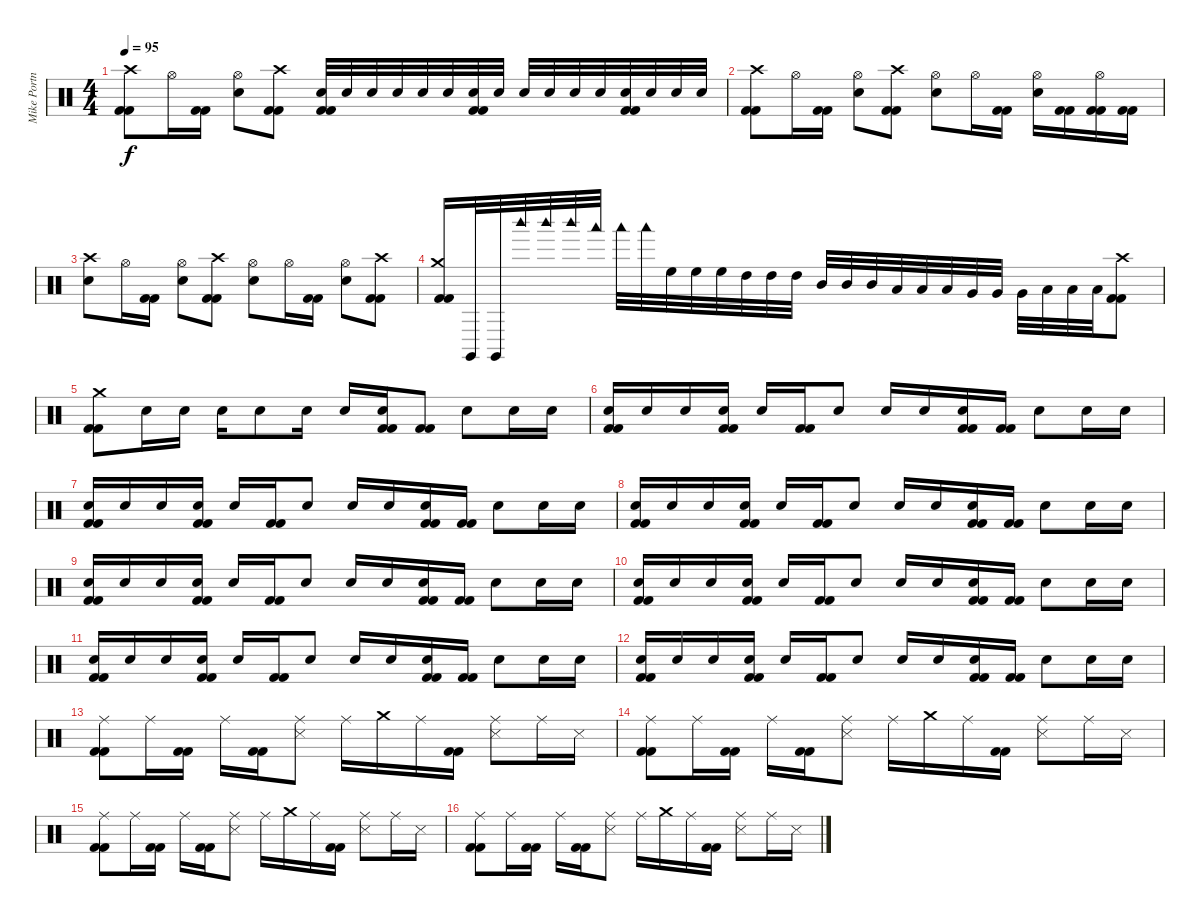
\track ("Mike Portnoy" "Mike Portn") {instrument percussion}
\staff {score}
\articulation defaults
\ts (4 4)
\tempo 95
\clef neutral
\ks c
("Crash high (hit)" "Kick (hit) 2" "Kick (hit) 2").8{dy f} "Hi-Hat (open)".16 ("Kick (hit) 2" "Kick (hit) 2").16 ("Hi-Hat (open)" "Snare (hit) 2").8 ("Crash high (hit)" "Kick (hit) 2" "Kick (hit) 2").8 ("Snare (hit) 2" "Kick (hit) 2" "Kick (hit) 2").32 "Snare (hit) 2".32 "Snare (hit) 2".32 "Snare (hit) 2".32 "Snare (hit) 2".32 "Snare (hit) 2".32 ("Snare (hit) 2" "Kick (hit) 2" "Kick (hit) 2").32 "Snare (hit) 2".32 "Snare (hit) 2".32 "Snare (hit) 2".32 "Snare (hit) 2".32 "Snare (hit) 2".32 ("Snare (hit) 2" "Kick (hit) 2" "Kick (hit) 2").32 "Snare (hit) 2".32 "Snare (hit) 2".32 "Snare (hit) 2".32 |
("Crash high (hit)" "Kick (hit) 2" "Kick (hit) 2").8 "Hi-Hat (open)".16 ("Kick (hit) 2" "Kick (hit) 2").16 ("Hi-Hat (open)" "Snare (hit) 2").8 ("Crash high (hit)" "Kick (hit) 2" "Kick (hit) 2").8 ("Hi-Hat (open)" "Snare (hit) 2").8 "Hi-Hat (open)".16 ("Kick (hit) 2" "Kick (hit) 2").16 ("Hi-Hat (open)" "Snare (hit) 2").16 ("Kick (hit) 2" "Kick (hit) 2").16 ("Hi-Hat (open)" "Kick (hit) 2" "Kick (hit) 2").16 ("Kick (hit) 2" "Kick (hit) 2").16 |
("Crash high (hit)" "Snare (hit) 2").8 "Hi-Hat (open)".16 ("Kick (hit) 2" "Kick (hit) 2").16 ("Hi-Hat (open)" "Snare (hit) 2").8 ("Crash high (hit)" "Kick (hit) 2" "Kick (hit) 2").8 ("Hi-Hat (open)" "Snare (hit) 2").8 "Hi-Hat (open)".16 ("Kick (hit) 2" "Kick (hit) 2").16 ("Hi-Hat (open)" "Snare (hit) 2").8 ("Crash high (hit)" "Kick (hit) 2" "Kick (hit) 2").8 |
("Crash medium (hit)" "Kick (hit) 2" "Kick (hit) 2").16 "Claves (hit)".32 "Claves (hit)".32 "Woodblock high (hit)".32 "Woodblock high (hit)".32 "Woodblock high (hit)".32 "Woodblock low (hit)".32 "Woodblock low (hit)".32 "Woodblock low (hit)".32 "High Floor Tom (hit)".32 "High Floor Tom (hit)".32 "High Floor Tom (hit)".32 "High Tom (hit)".32 "High Tom (hit)".32 "High Tom (hit)".32 "Mid Tom (hit)".32 "Mid Tom (hit)".32 "Mid Tom (hit)".32 "Low Tom (hit)".32 "Low Tom (hit)".32 "Low Tom (hit)".32 "Very Low Tom (hit)".32 "Very Low Tom (hit)".32 "Very Low Tom (hit)".32 "Low Floor Tom (hit)".32 "Low Floor Tom (hit)".32 "Low Floor Tom (hit)".32 ("Crash high (hit)" "Kick (hit) 2" "Kick (hit) 2").8 |
("Crash medium (hit)" "Kick (hit) 2" "Kick (hit) 2").8 "Snare (hit) 2".16 "Snare (hit) 2".16 "Snare (hit) 2".16 "Snare (hit) 2".8 "Snare (hit) 2".16 "Snare (hit) 2".16 ("Snare (hit) 2" "Kick (hit) 2" "Kick (hit) 2").16 ("Kick (hit) 2" "Kick (hit) 2").8 "Snare (hit) 2".8 "Snare (hit) 2".16 "Snare (hit) 2".16 |
("Snare (hit) 2" "Kick (hit) 2" "Kick (hit) 2").16 "Snare (hit) 2".16 "Snare (hit) 2".16 ("Snare (hit) 2" "Kick (hit) 2" "Kick (hit) 2").16 "Snare (hit) 2".16 ("Kick (hit) 2" "Kick (hit) 2").16 "Snare (hit) 2".8 "Snare (hit) 2".16 "Snare (hit) 2".16 ("Snare (hit) 2" "Kick (hit) 2" "Kick (hit) 2").16 ("Kick (hit) 2" "Kick (hit) 2").16 "Snare (hit) 2".8 "Snare (hit) 2".16 "Snare (hit) 2".16 |
("Snare (hit) 2" "Kick (hit) 2" "Kick (hit) 2").16 "Snare (hit) 2".16 "Snare (hit) 2".16 ("Snare (hit) 2" "Kick (hit) 2" "Kick (hit) 2").16 "Snare (hit) 2".16 ("Kick (hit) 2" "Kick (hit) 2").16 "Snare (hit) 2".8 "Snare (hit) 2".16 "Snare (hit) 2".16 ("Snare (hit) 2" "Kick (hit) 2" "Kick (hit) 2").16 ("Kick (hit) 2" "Kick (hit) 2").16 "Snare (hit) 2".8 "Snare (hit) 2".16 "Snare (hit) 2".16 |
("Snare (hit) 2" "Kick (hit) 2" "Kick (hit) 2").16 "Snare (hit) 2".16 "Snare (hit) 2".16 ("Snare (hit) 2" "Kick (hit) 2" "Kick (hit) 2").16 "Snare (hit) 2".16 ("Kick (hit) 2" "Kick (hit) 2").16 "Snare (hit) 2".8 "Snare (hit) 2".16 "Snare (hit) 2".16 ("Snare (hit) 2" "Kick (hit) 2" "Kick (hit) 2").16 ("Kick (hit) 2" "Kick (hit) 2").16 "Snare (hit) 2".8 "Snare (hit) 2".16 "Snare (hit) 2".16 |
("Snare (hit) 2" "Kick (hit) 2" "Kick (hit) 2").16 "Snare (hit) 2".16 "Snare (hit) 2".16 ("Snare (hit) 2" "Kick (hit) 2" "Kick (hit) 2").16 "Snare (hit) 2".16 ("Kick (hit) 2" "Kick (hit) 2").16 "Snare (hit) 2".8 "Snare (hit) 2".16 "Snare (hit) 2".16 ("Snare (hit) 2" "Kick (hit) 2" "Kick (hit) 2").16 ("Kick (hit) 2" "Kick (hit) 2").16 "Snare (hit) 2".8 "Snare (hit) 2".16 "Snare (hit) 2".16 |
("Snare (hit) 2" "Kick (hit) 2" "Kick (hit) 2").16 "Snare (hit) 2".16 "Snare (hit) 2".16 ("Snare (hit) 2" "Kick (hit) 2" "Kick (hit) 2").16 "Snare (hit) 2".16 ("Kick (hit) 2" "Kick (hit) 2").16 "Snare (hit) 2".8 "Snare (hit) 2".16 "Snare (hit) 2".16 ("Snare (hit) 2" "Kick (hit) 2" "Kick (hit) 2").16 ("Kick (hit) 2" "Kick (hit) 2").16 "Snare (hit) 2".8 "Snare (hit) 2".16 "Snare (hit) 2".16 |
("Snare (hit) 2" "Kick (hit) 2" "Kick (hit) 2").16 "Snare (hit) 2".16 "Snare (hit) 2".16 ("Snare (hit) 2" "Kick (hit) 2" "Kick (hit) 2").16 "Snare (hit) 2".16 ("Kick (hit) 2" "Kick (hit) 2").16 "Snare (hit) 2".8 "Snare (hit) 2".16 "Snare (hit) 2".16 ("Snare (hit) 2" "Kick (hit) 2" "Kick (hit) 2").16 ("Kick (hit) 2" "Kick (hit) 2").16 "Snare (hit) 2".8 "Snare (hit) 2".16 "Snare (hit) 2".16 |
("Snare (hit) 2" "Kick (hit) 2" "Kick (hit) 2").16 "Snare (hit) 2".16 "Snare (hit) 2".16 ("Snare (hit) 2" "Kick (hit) 2" "Kick (hit) 2").16 "Snare (hit) 2".16 ("Kick (hit) 2" "Kick (hit) 2").16 "Snare (hit) 2".8 "Snare (hit) 2".16 "Snare (hit) 2".16 ("Snare (hit) 2" "Kick (hit) 2" "Kick (hit) 2").16 ("Kick (hit) 2" "Kick (hit) 2").16 "Snare (hit) 2".8 "Snare (hit) 2".16 "Snare (hit) 2".16 |
("Ride (middle)" "Kick (hit) 2" "Kick (hit) 2").8 "Ride (middle)".16 ("Kick (hit) 2" "Kick (hit) 2").16 "Ride (middle)".16 ("Kick (hit) 2" "Kick (hit) 2").16 ("Ride (middle)" "Snare (side stick) 3").8 "Ride (middle)".16 "Crash medium (hit)".16 "Ride (middle)".16 ("Kick (hit) 2" "Kick (hit) 2").16 ("Ride (middle)" "Snare (side stick) 3").8 "Ride (middle)".16 "Snare (side stick) 3".16 |
("Ride (middle)" "Kick (hit) 2" "Kick (hit) 2").8 "Ride (middle)".16 ("Kick (hit) 2" "Kick (hit) 2").16 "Ride (middle)".16 ("Kick (hit) 2" "Kick (hit) 2").16 ("Ride (middle)" "Snare (side stick) 3").8 "Ride (middle)".16 "Crash medium (hit)".16 "Ride (middle)".16 ("Kick (hit) 2" "Kick (hit) 2").16 ("Ride (middle)" "Snare (side stick) 3").8 "Ride (middle)".16 "Snare (side stick) 3".16 |
("Ride (middle)" "Kick (hit) 2" "Kick (hit) 2").8 "Ride (middle)".16 ("Kick (hit) 2" "Kick (hit) 2").16 "Ride (middle)".16 ("Kick (hit) 2" "Kick (hit) 2").16 ("Ride (middle)" "Snare (side stick) 3").8 "Ride (middle)".16 "Crash medium (hit)".16 "Ride (middle)".16 ("Kick (hit) 2" "Kick (hit) 2").16 ("Ride (middle)" "Snare (side stick) 3").8 "Ride (middle)".16 "Snare (side stick) 3".16 |
("Ride (middle)" "Kick (hit) 2" "Kick (hit) 2").8 "Ride (middle)".16 ("Kick (hit) 2" "Kick (hit) 2").16 "Ride (middle)".16 ("Kick (hit) 2" "Kick (hit) 2").16 ("Ride (middle)" "Snare (side stick) 3").8 "Ride (middle)".16 "Crash medium (hit)".16 "Ride (middle)".16 ("Kick (hit) 2" "Kick (hit) 2").16 ("Ride (middle)" "Snare (side stick) 3").8 "Ride (middle)".16 "Snare (side stick) 3".16
